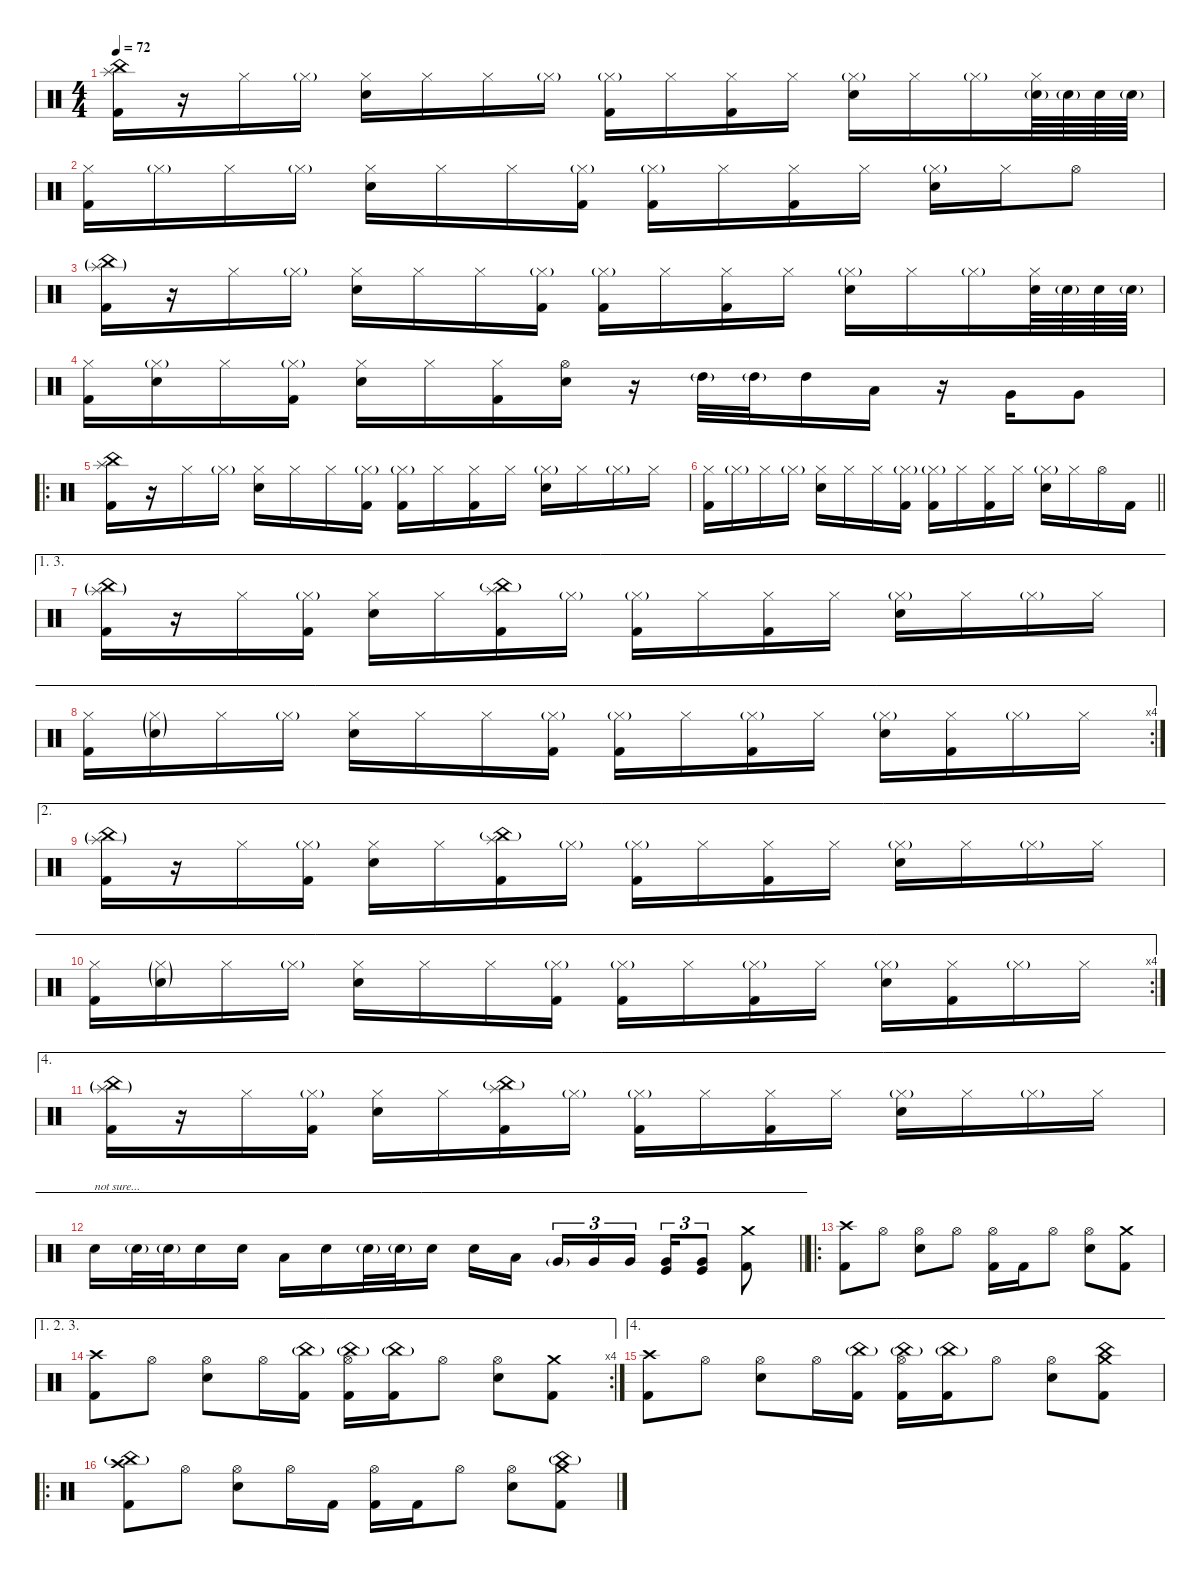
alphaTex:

\defaultSystemsLayout 4
\hideDynamics
\bracketExtendMode nobrackets
\singleTrackTrackNamePolicy hidden
\multiTrackTrackNamePolicy hidden
\firstSystemTrackNameMode fullname
\firstSystemTrackNameOrientation horizontal
\otherSystemsTrackNameOrientation horizontal
\track ("Drums" "drm.") {instrument percussion}
\staff {score}
\articulation defaults
\ts (4 4)
\tempo 72
\clef neutral
\ks c
("Splash (hit)" "China (hit)" "Kick (hit) 2").16{dy f beam Down} r.16{beam Down} "Hi-Hat (closed)".16{beam Down} "Hi-Hat (closed)"{g}.16{dy mf beam Down} ("Hi-Hat (closed)" "Snare (hit) 2").16{dy f beam Down} "Hi-Hat (closed)".16{beam Down} "Hi-Hat (closed)".16{beam Down} "Hi-Hat (closed)"{g}.16{dy mf beam Down} ("Hi-Hat (closed)"{g} "Kick (hit) 2").16{dy f beam Down} "Hi-Hat (closed)".16{beam Down} ("Hi-Hat (closed)" "Kick (hit) 2").16{beam Down} "Hi-Hat (closed)".16{beam Down} ("Hi-Hat (closed)"{g} "Snare (hit) 2").16{beam Down} "Hi-Hat (closed)".16{beam Down} "Hi-Hat (closed)"{g}.16{dy mf beam Down} ("Hi-Hat (closed)" "Snare (hit) 2"{g}).64{dy f beam Down} "Snare (hit) 2"{g}.64{dy mp beam Down} "Snare (hit) 2".64{beam Down} "Snare (hit) 2"{g}.64{dy mf beam Down} |
("Hi-Hat (closed)" "Kick (hit) 2").16{dy f beam Down} "Hi-Hat (closed)"{g}.16{dy mf beam Down} "Hi-Hat (closed)".16{dy f beam Down} "Hi-Hat (closed)"{g}.16{dy mf beam Down} ("Hi-Hat (closed)" "Snare (hit) 2").16{dy f beam Down} "Hi-Hat (closed)".16{beam Down} "Hi-Hat (closed)".16{beam Down} ("Hi-Hat (closed)"{g} "Kick (hit) 2").16{beam Down} ("Hi-Hat (closed)"{g} "Kick (hit) 2").16{beam Down} "Hi-Hat (closed)".16{beam Down} ("Hi-Hat (closed)" "Kick (hit) 2").16{beam Down} "Hi-Hat (closed)".16{beam Down} ("Hi-Hat (closed)"{g} "Snare (hit) 2").16{beam Down} "Hi-Hat (closed)".16{beam Down} "Hi-Hat (open)".8{beam Down} |
("Splash (hit)"{g} "China (hit)"{g} "Kick (hit) 2").16{beam Down} r.16{beam Down} "Hi-Hat (closed)".16{beam Down} "Hi-Hat (closed)"{g}.16{dy mf beam Down} ("Hi-Hat (closed)" "Snare (hit) 2").16{dy f beam Down} "Hi-Hat (closed)".16{beam Down} "Hi-Hat (closed)".16{beam Down} ("Hi-Hat (closed)"{g} "Kick (hit) 2").16{beam Down} ("Hi-Hat (closed)"{g} "Kick (hit) 2").16{beam Down} "Hi-Hat (closed)".16{beam Down} ("Hi-Hat (closed)" "Kick (hit) 2").16{beam Down} "Hi-Hat (closed)".16{beam Down} ("Hi-Hat (closed)"{g} "Snare (hit) 2").16{beam Down} "Hi-Hat (closed)".16{beam Down} "Hi-Hat (closed)"{g}.16{dy mf beam Down} ("Hi-Hat (closed)" "Snare (hit) 2").64{dy f beam Down} "Snare (hit) 2"{g}.64{dy mf beam Down} "Snare (hit) 2".64{dy f beam Down} "Snare (hit) 2"{g}.64{dy mf beam Down} |
("Hi-Hat (closed)" "Kick (hit) 2").16{dy f beam Down} ("Hi-Hat (closed)"{g} "Snare (hit) 2").16{beam Down} "Hi-Hat (closed)".16{beam Down} ("Hi-Hat (closed)"{g} "Kick (hit) 2").16{beam Down} ("Hi-Hat (closed)" "Snare (hit) 2").16{beam Down} "Hi-Hat (closed)".16{beam Down} ("Hi-Hat (closed)" "Kick (hit) 2").16{beam Down} ("Hi-Hat (open)" "Snare (hit) 2").16{beam Down} r.16{beam Down} "High Tom (hit)"{g}.32{beam Down} "High Tom (hit)"{g}.32{beam Down} "High Tom (hit)".16{dy fff beam Down} "Low Tom (hit)".16{beam Down} r.16{beam Down} "Very Low Tom (hit)".16{beam Up} "Very Low Tom (hit)".8{beam Up} |
\ro
("Splash (hit)" "China (hit)" "Kick (hit) 2").16{dy f beam Down} r.16{beam Down} "Hi-Hat (closed)".16{beam Down} "Hi-Hat (closed)"{g}.16{dy mf beam Down} ("Hi-Hat (closed)" "Snare (hit) 2").16{dy f beam Down} "Hi-Hat (closed)".16{beam Down} "Hi-Hat (closed)".16{beam Down} ("Hi-Hat (closed)"{g} "Kick (hit) 2").16{beam Down} ("Hi-Hat (closed)"{g} "Kick (hit) 2").16{beam Down} "Hi-Hat (closed)".16{beam Down} ("Hi-Hat (closed)" "Kick (hit) 2").16{beam Down} "Hi-Hat (closed)".16{beam Down} ("Hi-Hat (closed)"{g} "Snare (hit) 2").16{beam Down} "Hi-Hat (closed)".16{beam Down} "Hi-Hat (closed)"{g}.16{dy mf beam Down} "Hi-Hat (closed)".16{dy f beam Down} |
\barLineRight lightlight
("Hi-Hat (closed)" "Kick (hit) 2").16{beam Down} "Hi-Hat (closed)"{g}.16{dy mf beam Down} "Hi-Hat (closed)".16{dy f beam Down} "Hi-Hat (closed)"{g}.16{dy mf beam Down} ("Hi-Hat (closed)" "Snare (hit) 2").16{dy f beam Down} "Hi-Hat (closed)".16{beam Down} "Hi-Hat (closed)".16{beam Down} ("Hi-Hat (closed)"{g} "Kick (hit) 2").16{beam Down} ("Hi-Hat (closed)"{g} "Kick (hit) 2").16{beam Down} "Hi-Hat (closed)".16{beam Down} ("Hi-Hat (closed)" "Kick (hit) 2").16{beam Down} "Hi-Hat (closed)".16{beam Down} ("Hi-Hat (closed)"{g} "Snare (hit) 2").16{beam Down} "Hi-Hat (closed)".16{beam Down} "Hi-Hat (open)".16{dy mf beam Down} "Kick (hit) 2".16{beam Down} |
\ae (1 3)
("Splash (hit)"{g} "China (hit)"{g} "Kick (hit) 2").16{beam Down} r.16{beam Down} "Hi-Hat (closed)".16{dy f beam Down} ("Hi-Hat (closed)"{g} "Kick (hit) 2").16{beam Down} ("Hi-Hat (closed)" "Snare (hit) 2").16{beam Down} "Hi-Hat (closed)".16{beam Down} ("China (hit)"{g} "Splash (hit)" "Kick (hit) 2").16{beam Down} "Hi-Hat (closed)"{g}.16{dy mf beam Down} ("Hi-Hat (closed)"{g} "Kick (hit) 2").16{dy f beam Down} "Hi-Hat (closed)".16{beam Down} ("Hi-Hat (closed)" "Kick (hit) 2").16{beam Down} "Hi-Hat (closed)".16{beam Down} ("Hi-Hat (closed)"{g} "Snare (hit) 2").16{beam Down} "Hi-Hat (closed)".16{beam Down} "Hi-Hat (closed)"{g}.16{dy mf beam Down} "Hi-Hat (closed)".16{dy f beam Down} |
\ae (1 3)
\rc 4
("Hi-Hat (closed)" "Kick (hit) 2").16{beam Down} ("Hi-Hat (closed)"{g} "Snare (hit) 2"{g}).16{dy mf beam Down} "Hi-Hat (closed)".16{dy f beam Down} "Hi-Hat (closed)"{g}.16{dy mf beam Down} ("Hi-Hat (closed)" "Snare (hit) 2").16{dy f beam Down} "Hi-Hat (closed)".16{beam Down} "Hi-Hat (closed)".16{beam Down} ("Hi-Hat (closed)"{g} "Kick (hit) 2").16{beam Down} ("Hi-Hat (closed)"{g} "Kick (hit) 2").16{beam Down} "Hi-Hat (closed)".16{beam Down} ("Hi-Hat (closed)"{g} "Kick (hit) 2").16{beam Down} "Hi-Hat (closed)".16{beam Down} ("Hi-Hat (closed)"{g} "Snare (hit) 2").16{beam Down} ("Hi-Hat (closed)" "Kick (hit) 2").16{beam Down} "Hi-Hat (closed)"{g}.16{dy mf beam Down} "Hi-Hat (closed)".16{dy f beam Down} |
\ae 2
("Splash (hit)"{g} "China (hit)"{g} "Kick (hit) 2").16{dy mf beam Down} r.16{beam Down} "Hi-Hat (closed)".16{dy f beam Down} ("Hi-Hat (closed)"{g} "Kick (hit) 2").16{beam Down} ("Hi-Hat (closed)" "Snare (hit) 2").16{beam Down} "Hi-Hat (closed)".16{beam Down} ("China (hit)"{g} "Splash (hit)" "Kick (hit) 2").16{beam Down} "Hi-Hat (closed)"{g}.16{dy mf beam Down} ("Hi-Hat (closed)"{g} "Kick (hit) 2").16{dy f beam Down} "Hi-Hat (closed)".16{beam Down} ("Hi-Hat (closed)" "Kick (hit) 2").16{beam Down} "Hi-Hat (closed)".16{beam Down} ("Hi-Hat (closed)"{g} "Snare (hit) 2").16{beam Down} "Hi-Hat (closed)".16{beam Down} "Hi-Hat (closed)"{g}.16{dy mf beam Down} "Hi-Hat (closed)".16{dy f beam Down} |
\ae 2
\rc 4
("Hi-Hat (closed)" "Kick (hit) 2").16{beam Down} ("Hi-Hat (closed)"{g} "Snare (hit) 2"{g}).16{dy mf beam Down} "Hi-Hat (closed)".16{dy f beam Down} "Hi-Hat (closed)"{g}.16{dy mf beam Down} ("Hi-Hat (closed)" "Snare (hit) 2").16{dy f beam Down} "Hi-Hat (closed)".16{beam Down} "Hi-Hat (closed)".16{beam Down} ("Hi-Hat (closed)"{g} "Kick (hit) 2").16{beam Down} ("Hi-Hat (closed)"{g} "Kick (hit) 2").16{beam Down} "Hi-Hat (closed)".16{beam Down} ("Hi-Hat (closed)"{g} "Kick (hit) 2").16{beam Down} "Hi-Hat (closed)".16{beam Down} ("Hi-Hat (closed)"{g} "Snare (hit) 2").16{beam Down} ("Hi-Hat (closed)" "Kick (hit) 2").16{beam Down} "Hi-Hat (closed)"{g}.16{dy mf beam Down} "Hi-Hat (closed)".16{dy f beam Down} |
\ae 4
("Splash (hit)"{g} "China (hit)"{g} "Kick (hit) 2").16{dy mf beam Down} r.16{beam Down} "Hi-Hat (closed)".16{dy f beam Down} ("Hi-Hat (closed)"{g} "Kick (hit) 2").16{beam Down} ("Hi-Hat (closed)" "Snare (hit) 2").16{beam Down} "Hi-Hat (closed)".16{beam Down} ("China (hit)"{g} "Splash (hit)" "Kick (hit) 2").16{beam Down} "Hi-Hat (closed)"{g}.16{dy mf beam Down} ("Hi-Hat (closed)"{g} "Kick (hit) 2").16{dy f beam Down} "Hi-Hat (closed)".16{beam Down} ("Hi-Hat (closed)" "Kick (hit) 2").16{beam Down} "Hi-Hat (closed)".16{beam Down} ("Hi-Hat (closed)"{g} "Snare (hit) 2").16{beam Down} "Hi-Hat (closed)".16{beam Down} "Hi-Hat (closed)"{g}.16{dy mf beam Down} "Hi-Hat (closed)".16{dy f beam Down} |
\ae 4
\barLineRight lightlight "Snare (hit) 2".16{txt "not sure..." beam Down} "Snare (hit) 2"{g}.32{dy mf beam Down} "Snare (hit) 2"{g}.32{beam Down} "Snare (hit) 2".16{dy f beam Down} "Snare (hit) 2".16{beam Down} "Low Tom (hit)".16{beam Down} "Snare (hit) 2".16{beam Down} "Snare (hit) 2"{g}.32{dy mf beam Down} "Snare (hit) 2"{g}.32{beam Down} "Snare (hit) 2".16{dy f beam Down} "Snare (hit) 2".16{beam Down} "Low Tom (hit)".16{beam Down} "Very Low Tom (hit)"{g}.16{tu (3 2) dy mf beam Up} "Very Low Tom (hit)".16{tu (3 2) dy f beam Up} "Very Low Tom (hit)".16{tu (3 2) beam Up}
("Very Low Tom (hit)" "Kick (hit)").16{tu (3 2) beam Up} ("Very Low Tom (hit)" "Kick (hit)").8{tu (3 2) beam Up} ("Crash medium (hit)" "Kick (hit) 2").8{beam Down} |
\ro
("Crash high (hit)" "Kick (hit) 2").8{beam Down} "Hi-Hat (open)".8{beam Down} ("Hi-Hat (open)" "Snare (hit) 2").8{beam Down} "Hi-Hat (open)".8{beam Down} ("Hi-Hat (open)" "Kick (hit) 2").16{beam Down} "Kick (hit) 2".16{beam Down} "Hi-Hat (open)".8{beam Down} ("Hi-Hat (open)" "Snare (hit) 2").8{beam Down} ("Crash medium (hit)" "Kick (hit) 2").8{beam Down} |
\ae (1 2 3)
\rc 4
("Crash high (hit)" "Kick (hit) 2").8{beam Down} "Hi-Hat (open)".8{beam Down} ("Hi-Hat (open)" "Snare (hit) 2").8{beam Down} "Hi-Hat (open)".16{beam Down} ("China (hit)"{g} "Kick (hit) 2").16{beam Down} ("China (hit)"{g} "Hi-Hat (open)" "Kick (hit) 2").16{beam Down} ("China (hit)"{g} "Kick (hit) 2").16{beam Down} "Hi-Hat (open)".8{beam Down} ("Hi-Hat (open)" "Snare (hit) 2").8{beam Down} ("Crash medium (hit)" "Kick (hit) 2").8{beam Down} |
\ae 4
("Crash high (hit)" "Kick (hit) 2").8{beam Down} "Hi-Hat (open)".8{beam Down} ("Hi-Hat (open)" "Snare (hit) 2").8{beam Down} "Hi-Hat (open)".16{beam Down} ("China (hit)"{g} "Kick (hit) 2").16{beam Down} ("China (hit)"{g} "Hi-Hat (open)" "Kick (hit) 2").16{beam Down} ("China (hit)"{g} "Kick (hit) 2").16{beam Down} "Hi-Hat (open)".8{beam Down} ("Hi-Hat (open)" "Snare (hit) 2").8{beam Down} ("Crash medium (hit)" "China (hit)" "Kick (hit) 2").8{beam Down} |
\ro
("Crash high (hit)" "China (hit)"{g} "Kick (hit) 2").8{beam Down} "Hi-Hat (open)".8{beam Down} ("Hi-Hat (open)" "Snare (hit) 2").8{beam Down} "Hi-Hat (open)".16{beam Down} "Kick (hit) 2".16{beam Down} ("Hi-Hat (open)" "Kick (hit) 2").16{beam Down} "Kick (hit) 2".16{beam Down} "Hi-Hat (open)".8{beam Down} ("Hi-Hat (open)" "Snare (hit) 2").8{beam Down} ("Crash medium (hit)" "China (hit)"{g} "Kick (hit) 2").8{beam Down}
